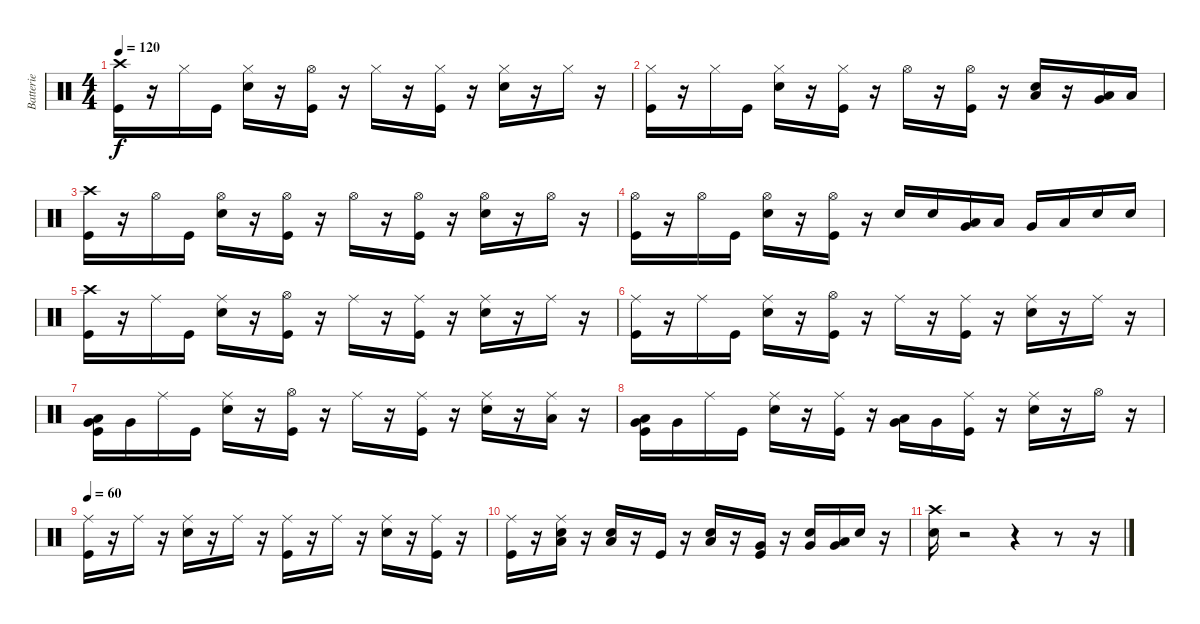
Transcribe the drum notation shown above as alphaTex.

\track ("Batterie" "Batterie") {instrument percussion}
\staff {score}
\articulation defaults
\ts (4 4)
\tempo 120
\clef neutral
\ks c
("Crash high (hit)" "Kick (hit)").16{dy f} r.16 "Hi-Hat (closed)".16 "Kick (hit)".16 ("Hi-Hat (closed)" "Electric Snare (hit)").16 r.16 ("Kick (hit)" "Hi-Hat (open)").16 r.16 "Hi-Hat (closed)".16 r.16 ("Hi-Hat (closed)" "Kick (hit)").16 r.16 ("Electric Snare (hit)" "Hi-Hat (closed)").16 r.16 "Hi-Hat (closed)".16 r.16 |
("Hi-Hat (closed)" "Kick (hit)").16 r.16 "Hi-Hat (closed)".16 "Kick (hit)".16 ("Electric Snare (hit)" "Hi-Hat (closed)").16 r.16 ("Hi-Hat (closed)" "Kick (hit)").16 r.16 "Hi-Hat (open)".16 r.16 ("Hi-Hat (open)" "Kick (hit)").16 r.16 ("Low Floor Tom (hit)" "Electric Snare (hit)").16 r.16 ("Very Low Tom (hit)" "Low Floor Tom (hit)").16 "Low Floor Tom (hit)".16 |
("Crash high (hit)" "Kick (hit)").16 r.16 "Hi-Hat (open)".16 "Kick (hit)".16 ("Hi-Hat (open)" "Electric Snare (hit)").16 r.16 ("Kick (hit)" "Hi-Hat (open)").16 r.16 "Hi-Hat (open)".16 r.16 ("Hi-Hat (open)" "Kick (hit)").16 r.16 ("Hi-Hat (open)" "Electric Snare (hit)").16 r.16 "Hi-Hat (open)".16 r.16 |
("Hi-Hat (open)" "Kick (hit)").16 r.16 "Hi-Hat (open)".16 "Kick (hit)".16 ("Hi-Hat (open)" "Electric Snare (hit)").16 r.16 ("Hi-Hat (open)" "Kick (hit)").16 r.16 "Electric Snare (hit)".16 "Electric Snare (hit)".16 ("Low Tom (hit)" "Very Low Tom (hit)").16 "Low Tom (hit)".16 "Very Low Tom (hit)".16 "Low Floor Tom (hit)".16 "Electric Snare (hit)".16 "Electric Snare (hit)".16 |
("Crash high (hit)" "Kick (hit)").16 r.16 "Ride (middle)".16 "Kick (hit)".16 ("Ride (middle)" "Electric Snare (hit)").16 r.16 ("Hi-Hat (open)" "Kick (hit)").16 r.16 "Ride (middle)".16 r.16 ("Kick (hit)" "Ride (middle)").16 r.16 ("Ride (middle)" "Electric Snare (hit)").16 r.16 "Ride (middle)".16 r.16 |
("Ride (middle)" "Kick (hit)").16 r.16 "Ride (middle)".16 "Kick (hit)".16 ("Ride (middle)" "Electric Snare (hit)").16 r.16 ("Hi-Hat (open)" "Kick (hit)").16 r.16 "Ride (middle)".16 r.16 ("Ride (middle)" "Kick (hit)").16 r.16 ("Ride (middle)" "Electric Snare (hit)").16 r.16 "Ride (middle)".16 r.16 |
("Very Low Tom (hit)" "Low Tom (hit)" "Kick (hit)").16 "Very Low Tom (hit)".16 "Ride (middle)".16 "Kick (hit)".16 ("Ride (middle)" "Electric Snare (hit)").16 r.16 ("Hi-Hat (open)" "Kick (hit)").16 r.16 "Ride (middle)".16 r.16 ("Ride (middle)" "Kick (hit)").16 r.16 ("Electric Snare (hit)" "Ride (middle)").16 r.16 ("Low Floor Tom (hit)" "Ride (middle)").16 r.16 |
("Very Low Tom (hit)" "Low Tom (hit)" "Kick (hit)").16 "Very Low Tom (hit)".16 "Ride (middle)".16 "Kick (hit)".16 ("Electric Snare (hit)" "Ride (middle)").16 r.16 ("Ride (middle)" "Kick (hit)").16 r.16 ("Very Low Tom (hit)" "Low Tom (hit)").16 "Very Low Tom (hit)".16 ("Kick (hit)" "Ride (middle)").16 r.16 ("Ride (middle)" "Electric Snare (hit)").16 r.16 "Hi-Hat (open)".16 r.16 |
\tempo 60
("Ride (middle)" "Kick (hit)").16 r.16 "Ride (middle)".16 r.16 ("Ride (middle)" "Electric Snare (hit)").16 r.16 "Ride (middle)".16 r.16 ("Ride (middle)" "Kick (hit)").16 r.16 "Ride (middle)".16 r.16 ("Ride (middle)" "Electric Snare (hit)").16 r.16 ("Kick (hit)" "Ride (middle)").16 r.16 |
("Kick (hit)" "Ride (middle)").16 r.16 ("Electric Snare (hit)" "Ride (middle)" "Low Floor Tom (hit)").16 r.16 ("Electric Snare (hit)" "Low Floor Tom (hit)").16 r.16 "Kick (hit)".16 r.16 ("Electric Snare (hit)" "Low Floor Tom (hit)").16 r.16 ("Very Low Tom (hit)" "Kick (hit)").16 r.16 ("Electric Snare (hit)" "Very Low Tom (hit)").16 ("Very Low Tom (hit)" "Low Floor Tom (hit)").16 "Electric Snare (hit)".16 r.16 |
("Crash high (hit)" "Electric Snare (hit)").16 r.2 r.4 r.8 r.16
